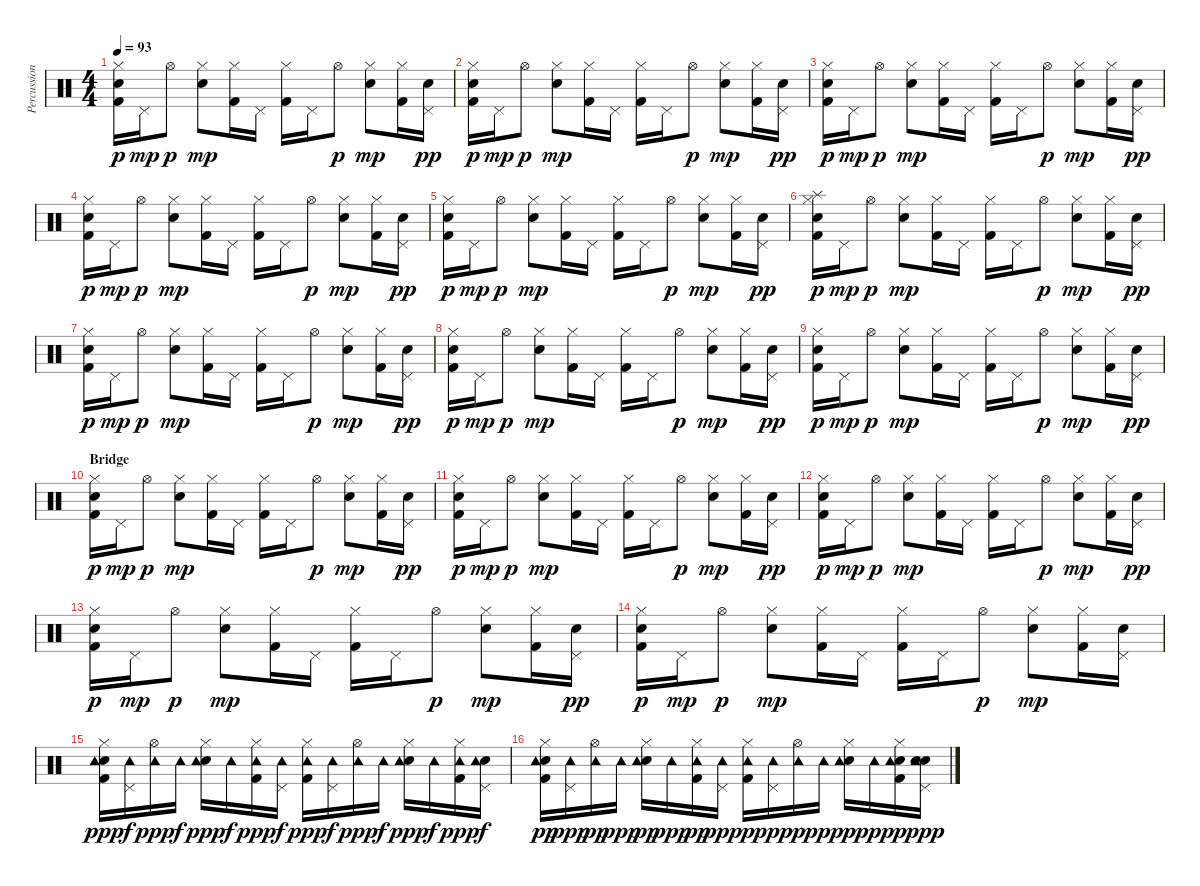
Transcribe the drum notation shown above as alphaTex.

\track ("Percussions" "Percussion") {instrument percussion}
\staff {score}
\articulation defaults
\ts (4 4)
\tempo 93
\clef neutral
\ks c
("Hi-Hat (closed)" "Hand Clap (hit)" "Kick (hit) 2").16{dy p} "Pedal Hi-Hat (hit)".16{dy mp} "Hi-Hat (open)".8{dy p} ("Hi-Hat (closed)" "Electric Snare (hit)").8{dy mp} ("Hi-Hat (closed)" "Kick (hit) 2").16 "Pedal Hi-Hat (hit)".16 ("Hi-Hat (closed)" "Kick (hit) 2").16 "Pedal Hi-Hat (hit)".16 "Hi-Hat (open)".8{dy p} ("Hi-Hat (closed)" "Electric Snare (hit)").8{dy mp} ("Hi-Hat (closed)" "Kick (hit) 2").16 ("Pedal Hi-Hat (hit)" "Hand Clap (hit)").16{dy pp} |
("Hi-Hat (closed)" "Hand Clap (hit)" "Kick (hit) 2").16{dy p} "Pedal Hi-Hat (hit)".16{dy mp} "Hi-Hat (open)".8{dy p} ("Hi-Hat (closed)" "Electric Snare (hit)").8{dy mp} ("Hi-Hat (closed)" "Kick (hit) 2").16 "Pedal Hi-Hat (hit)".16 ("Hi-Hat (closed)" "Kick (hit) 2").16 "Pedal Hi-Hat (hit)".16 "Hi-Hat (open)".8{dy p} ("Hi-Hat (closed)" "Electric Snare (hit)").8{dy mp} ("Hi-Hat (closed)" "Kick (hit) 2").16 ("Pedal Hi-Hat (hit)" "Hand Clap (hit)").16{dy pp} |
("Hi-Hat (closed)" "Hand Clap (hit)" "Kick (hit) 2").16{dy p} "Pedal Hi-Hat (hit)".16{dy mp} "Hi-Hat (open)".8{dy p} ("Hi-Hat (closed)" "Electric Snare (hit)").8{dy mp} ("Hi-Hat (closed)" "Kick (hit) 2").16 "Pedal Hi-Hat (hit)".16 ("Hi-Hat (closed)" "Kick (hit) 2").16 "Pedal Hi-Hat (hit)".16 "Hi-Hat (open)".8{dy p} ("Hi-Hat (closed)" "Electric Snare (hit)").8{dy mp} ("Hi-Hat (closed)" "Kick (hit) 2").16 ("Pedal Hi-Hat (hit)" "Hand Clap (hit)").16{dy pp} |
("Hi-Hat (closed)" "Hand Clap (hit)" "Kick (hit) 2").16{dy p} "Pedal Hi-Hat (hit)".16{dy mp} "Hi-Hat (open)".8{dy p} ("Hi-Hat (closed)" "Electric Snare (hit)").8{dy mp} ("Hi-Hat (closed)" "Kick (hit) 2").16 "Pedal Hi-Hat (hit)".16 ("Hi-Hat (closed)" "Kick (hit) 2").16 "Pedal Hi-Hat (hit)".16 "Hi-Hat (open)".8{dy p} ("Hi-Hat (closed)" "Electric Snare (hit)").8{dy mp} ("Hi-Hat (closed)" "Kick (hit) 2").16 ("Pedal Hi-Hat (hit)" "Hand Clap (hit)").16{dy pp} |
("Hi-Hat (closed)" "Hand Clap (hit)" "Kick (hit) 2").16{dy p} "Pedal Hi-Hat (hit)".16{dy mp} "Hi-Hat (open)".8{dy p} ("Hi-Hat (closed)" "Electric Snare (hit)").8{dy mp} ("Hi-Hat (closed)" "Kick (hit) 2").16 "Pedal Hi-Hat (hit)".16 ("Hi-Hat (closed)" "Kick (hit) 2").16 "Pedal Hi-Hat (hit)".16 "Hi-Hat (open)".8{dy p} ("Hi-Hat (closed)" "Electric Snare (hit)").8{dy mp} ("Hi-Hat (closed)" "Kick (hit) 2").16 ("Pedal Hi-Hat (hit)" "Hand Clap (hit)").16{dy pp} |
("Hi-Hat (closed)" "Splash (hit)" "Hand Clap (hit)" "Kick (hit) 2").16{dy p} "Pedal Hi-Hat (hit)".16{dy mp} "Hi-Hat (open)".8{dy p} ("Hi-Hat (closed)" "Electric Snare (hit)").8{dy mp} ("Hi-Hat (closed)" "Kick (hit) 2").16 "Pedal Hi-Hat (hit)".16 ("Hi-Hat (closed)" "Kick (hit) 2").16 "Pedal Hi-Hat (hit)".16 "Hi-Hat (open)".8{dy p} ("Hi-Hat (closed)" "Electric Snare (hit)").8{dy mp} ("Hi-Hat (closed)" "Kick (hit) 2").16 ("Pedal Hi-Hat (hit)" "Hand Clap (hit)").16{dy pp} |
("Hi-Hat (closed)" "Hand Clap (hit)" "Kick (hit) 2").16{dy p} "Pedal Hi-Hat (hit)".16{dy mp} "Hi-Hat (open)".8{dy p} ("Hi-Hat (closed)" "Electric Snare (hit)").8{dy mp} ("Hi-Hat (closed)" "Kick (hit) 2").16 "Pedal Hi-Hat (hit)".16 ("Hi-Hat (closed)" "Kick (hit) 2").16 "Pedal Hi-Hat (hit)".16 "Hi-Hat (open)".8{dy p} ("Hi-Hat (closed)" "Electric Snare (hit)").8{dy mp} ("Hi-Hat (closed)" "Kick (hit) 2").16 ("Pedal Hi-Hat (hit)" "Hand Clap (hit)").16{dy pp} |
("Hi-Hat (closed)" "Hand Clap (hit)" "Kick (hit) 2").16{dy p} "Pedal Hi-Hat (hit)".16{dy mp} "Hi-Hat (open)".8{dy p} ("Hi-Hat (closed)" "Electric Snare (hit)").8{dy mp} ("Hi-Hat (closed)" "Kick (hit) 2").16 "Pedal Hi-Hat (hit)".16 ("Hi-Hat (closed)" "Kick (hit) 2").16 "Pedal Hi-Hat (hit)".16 "Hi-Hat (open)".8{dy p} ("Hi-Hat (closed)" "Electric Snare (hit)").8{dy mp} ("Hi-Hat (closed)" "Kick (hit) 2").16 ("Pedal Hi-Hat (hit)" "Hand Clap (hit)").16{dy pp} |
("Hi-Hat (closed)" "Hand Clap (hit)" "Kick (hit) 2").16{dy p} "Pedal Hi-Hat (hit)".16{dy mp} "Hi-Hat (open)".8{dy p} ("Hi-Hat (closed)" "Electric Snare (hit)").8{dy mp} ("Hi-Hat (closed)" "Kick (hit) 2").16 "Pedal Hi-Hat (hit)".16 ("Hi-Hat (closed)" "Kick (hit) 2").16 "Pedal Hi-Hat (hit)".16 "Hi-Hat (open)".8{dy p} ("Hi-Hat (closed)" "Electric Snare (hit)").8{dy mp} ("Hi-Hat (closed)" "Kick (hit) 2").16 ("Pedal Hi-Hat (hit)" "Hand Clap (hit)").16{dy pp} |
\section ("" "Bridge")
("Hi-Hat (closed)" "Hand Clap (hit)" "Kick (hit) 2").16{dy p} "Pedal Hi-Hat (hit)".16{dy mp} "Hi-Hat (open)".8{dy p} ("Hi-Hat (closed)" "Electric Snare (hit)").8{dy mp} ("Hi-Hat (closed)" "Kick (hit) 2").16 "Pedal Hi-Hat (hit)".16 ("Hi-Hat (closed)" "Kick (hit) 2").16 "Pedal Hi-Hat (hit)".16 "Hi-Hat (open)".8{dy p} ("Hi-Hat (closed)" "Electric Snare (hit)").8{dy mp} ("Hi-Hat (closed)" "Kick (hit) 2").16 ("Pedal Hi-Hat (hit)" "Hand Clap (hit)").16{dy pp} |
("Hi-Hat (closed)" "Hand Clap (hit)" "Kick (hit) 2").16{dy p} "Pedal Hi-Hat (hit)".16{dy mp} "Hi-Hat (open)".8{dy p} ("Hi-Hat (closed)" "Electric Snare (hit)").8{dy mp} ("Hi-Hat (closed)" "Kick (hit) 2").16 "Pedal Hi-Hat (hit)".16 ("Hi-Hat (closed)" "Kick (hit) 2").16 "Pedal Hi-Hat (hit)".16 "Hi-Hat (open)".8{dy p} ("Hi-Hat (closed)" "Electric Snare (hit)").8{dy mp} ("Hi-Hat (closed)" "Kick (hit) 2").16 ("Pedal Hi-Hat (hit)" "Hand Clap (hit)").16{dy pp} |
("Hi-Hat (closed)" "Hand Clap (hit)" "Kick (hit) 2").16{dy p} "Pedal Hi-Hat (hit)".16{dy mp} "Hi-Hat (open)".8{dy p} ("Hi-Hat (closed)" "Electric Snare (hit)").8{dy mp} ("Hi-Hat (closed)" "Kick (hit) 2").16 "Pedal Hi-Hat (hit)".16 ("Hi-Hat (closed)" "Kick (hit) 2").16 "Pedal Hi-Hat (hit)".16 "Hi-Hat (open)".8{dy p} ("Hi-Hat (closed)" "Electric Snare (hit)").8{dy mp} ("Hi-Hat (closed)" "Kick (hit) 2").16 ("Pedal Hi-Hat (hit)" "Hand Clap (hit)").16{dy pp} |
("Hi-Hat (closed)" "Hand Clap (hit)" "Kick (hit) 2").16{dy p} "Pedal Hi-Hat (hit)".16{dy mp} "Hi-Hat (open)".8{dy p} ("Hi-Hat (closed)" "Electric Snare (hit)").8{dy mp} ("Hi-Hat (closed)" "Kick (hit) 2").16 "Pedal Hi-Hat (hit)".16 ("Hi-Hat (closed)" "Kick (hit) 2").16 "Pedal Hi-Hat (hit)".16 "Hi-Hat (open)".8{dy p} ("Hi-Hat (closed)" "Electric Snare (hit)").8{dy mp} ("Hi-Hat (closed)" "Kick (hit) 2").16 ("Pedal Hi-Hat (hit)" "Hand Clap (hit)").16{dy pp} |
("Hi-Hat (closed)" "Hand Clap (hit)" "Kick (hit) 2").16{dy p} "Pedal Hi-Hat (hit)".16{dy mp} "Hi-Hat (open)".8{dy p} ("Hi-Hat (closed)" "Electric Snare (hit)").8{dy mp} ("Hi-Hat (closed)" "Kick (hit) 2").16 "Pedal Hi-Hat (hit)".16 ("Hi-Hat (closed)" "Kick (hit) 2").16 "Pedal Hi-Hat (hit)".16 "Hi-Hat (open)".8{dy p} ("Hi-Hat (closed)" "Electric Snare (hit)").8{dy mp} ("Hi-Hat (closed)" "Kick (hit) 2").16 ("Hand Clap (hit)" "Pedal Hi-Hat (hit)").16 |
("Hi-Hat (closed)" "Hand Clap (hit)" "Kick (hit) 2" "Tambourine (hit)").16{dy ppp} ("Pedal Hi-Hat (hit)" "Tambourine (hit)").16{dy f} ("Hi-Hat (open)" "Tambourine (hit)").16{dy ppp} "Tambourine (hit)".16{dy f} ("Hi-Hat (closed)" "Electric Snare (hit)" "Tambourine (hit)").16{dy ppp} "Tambourine (hit)".16{dy f} ("Hi-Hat (closed)" "Kick (hit) 2" "Tambourine (hit)").16{dy ppp} ("Pedal Hi-Hat (hit)" "Tambourine (hit)").16{dy f} ("Hi-Hat (closed)" "Kick (hit) 2" "Tambourine (hit)").16{dy ppp} ("Pedal Hi-Hat (hit)" "Tambourine (hit)").16{dy f} ("Hi-Hat (open)" "Tambourine (hit)").16{dy ppp} "Tambourine (hit)".16{dy f} ("Hi-Hat (closed)" "Electric Snare (hit)" "Tambourine (hit)").16{dy ppp} "Tambourine (hit)".16{dy f} ("Hi-Hat (closed)" "Kick (hit) 2" "Tambourine (hit)").16{dy ppp} ("Pedal Hi-Hat (hit)" "Hand Clap (hit)" "Tambourine (hit)").16{dy f} |
("Hi-Hat (closed)" "Hand Clap (hit)" "Kick (hit) 2" "Tambourine (hit)").16{dy pp} ("Pedal Hi-Hat (hit)" "Tambourine (hit)").16{dy ppp} ("Hi-Hat (open)" "Tambourine (hit)").16{dy pp} "Tambourine (hit)".16{dy ppp} ("Hi-Hat (closed)" "Electric Snare (hit)" "Tambourine (hit)").16{dy pp} "Tambourine (hit)".16{dy ppp} ("Hi-Hat (closed)" "Kick (hit) 2" "Tambourine (hit)").16{dy pp} ("Pedal Hi-Hat (hit)" "Tambourine (hit)").16{dy ppp} ("Hi-Hat (closed)" "Kick (hit) 2" "Tambourine (hit)").16{dy p} ("Pedal Hi-Hat (hit)" "Tambourine (hit)").16{dy ppp} ("Hi-Hat (open)" "Tambourine (hit)").16{dy p} "Tambourine (hit)".16{dy ppp} ("Hi-Hat (closed)" "Electric Snare (hit)" "Tambourine (hit)").16{dy p} "Tambourine (hit)".16{dy ppp} ("Hi-Hat (closed)" "Electric Snare (hit)" "Kick (hit) 2" "Tambourine (hit)").16{dy p} ("Pedal Hi-Hat (hit)" "Electric Snare (hit)" "Hand Clap (hit)" "Tambourine (hit)").16{dy ppp}
